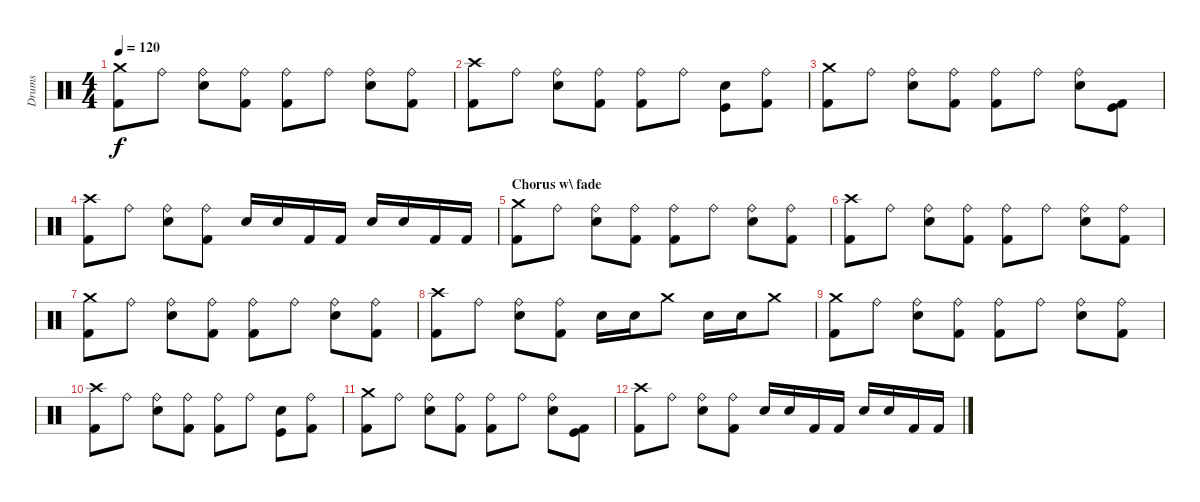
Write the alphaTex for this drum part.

\track ("Drums" "Drums") {instrument percussion}
\staff {score}
\articulation defaults
\ts (4 4)
\tempo 120
\clef neutral
\ks c
("Kick (hit) 2" "Crash medium (hit)").8{dy f} "Ride (bell)".8 ("Snare (hit) 2" "Ride (bell)").8 ("Kick (hit) 2" "Ride (bell)").8 ("Kick (hit) 2" "Ride (bell)").8 "Ride (bell)".8 ("Snare (hit) 2" "Ride (bell)").8 ("Kick (hit) 2" "Ride (bell)").8 |
("Kick (hit) 2" "Crash high (hit)").8 "Ride (bell)".8 ("Snare (hit) 2" "Ride (bell)").8 ("Kick (hit) 2" "Ride (bell)").8 ("Kick (hit) 2" "Ride (bell)").8 "Ride (bell)".8 ("Snare (hit) 2" "Kick (hit)").8 ("Kick (hit) 2" "Ride (bell)").8 |
("Kick (hit) 2" "Crash medium (hit)").8 "Ride (bell)".8 ("Snare (hit) 2" "Ride (bell)").8 ("Kick (hit) 2" "Ride (bell)").8 ("Kick (hit) 2" "Ride (bell)").8 "Ride (bell)".8 ("Snare (hit) 2" "Ride (bell)").8 ("Kick (hit) 2" "Kick (hit)").8 |
("Kick (hit) 2" "Crash high (hit)").8 "Ride (bell)".8 ("Snare (hit) 2" "Ride (bell)").8 ("Kick (hit) 2" "Ride (bell)").8 "Snare (hit) 2".16 "Snare (hit) 2".16 "Kick (hit) 2".16 "Kick (hit) 2".16 "Snare (hit) 2".16 "Snare (hit) 2".16 "Kick (hit) 2".16 "Kick (hit) 2".16 |
\section ("" "Chorus w\\ fade")
("Kick (hit) 2" "Crash medium (hit)").8{volume 11} "Ride (bell)".8 ("Snare (hit) 2" "Ride (bell)").8 ("Kick (hit) 2" "Ride (bell)").8 ("Kick (hit) 2" "Ride (bell)").8 "Ride (bell)".8 ("Snare (hit) 2" "Ride (bell)").8 ("Kick (hit) 2" "Ride (bell)").8 |
("Kick (hit) 2" "Crash high (hit)").8 "Ride (bell)".8 ("Snare (hit) 2" "Ride (bell)").8 ("Kick (hit) 2" "Ride (bell)").8 ("Kick (hit) 2" "Ride (bell)").8 "Ride (bell)".8 ("Snare (hit) 2" "Ride (bell)").8 ("Kick (hit) 2" "Ride (bell)").8 |
("Kick (hit) 2" "Crash medium (hit)").8{volume 9} "Ride (bell)".8 ("Snare (hit) 2" "Ride (bell)").8 ("Kick (hit) 2" "Ride (bell)").8 ("Kick (hit) 2" "Ride (bell)").8 "Ride (bell)".8 ("Snare (hit) 2" "Ride (bell)").8 ("Kick (hit) 2" "Ride (bell)").8 |
("Kick (hit) 2" "Crash high (hit)").8 "Ride (bell)".8 ("Snare (hit) 2" "Ride (bell)").8 ("Kick (hit) 2" "Ride (bell)").8 "Snare (hit) 2".16 "Snare (hit) 2".16 "Crash medium (hit)".8 "Snare (hit) 2".16 "Snare (hit) 2".16 "Crash medium (hit)".8 |
("Kick (hit) 2" "Crash medium (hit)").8{volume 7} "Ride (bell)".8 ("Snare (hit) 2" "Ride (bell)").8 ("Kick (hit) 2" "Ride (bell)").8 ("Kick (hit) 2" "Ride (bell)").8 "Ride (bell)".8 ("Snare (hit) 2" "Ride (bell)").8 ("Kick (hit) 2" "Ride (bell)").8 |
("Kick (hit) 2" "Crash high (hit)").8 "Ride (bell)".8 ("Snare (hit) 2" "Ride (bell)").8 ("Kick (hit) 2" "Ride (bell)").8 ("Kick (hit) 2" "Ride (bell)").8 "Ride (bell)".8 ("Snare (hit) 2" "Kick (hit)").8 ("Kick (hit) 2" "Ride (bell)").8 |
("Kick (hit) 2" "Crash medium (hit)").8{volume 0} "Ride (bell)".8 ("Snare (hit) 2" "Ride (bell)").8 ("Kick (hit) 2" "Ride (bell)").8 ("Kick (hit) 2" "Ride (bell)").8 "Ride (bell)".8 ("Snare (hit) 2" "Ride (bell)").8 ("Kick (hit) 2" "Kick (hit)").8 |
("Kick (hit) 2" "Crash high (hit)").8 "Ride (bell)".8 ("Snare (hit) 2" "Ride (bell)").8 ("Kick (hit) 2" "Ride (bell)").8 "Snare (hit) 2".16 "Snare (hit) 2".16 "Kick (hit) 2".16 "Kick (hit) 2".16 "Snare (hit) 2".16 "Snare (hit) 2".16 "Kick (hit) 2".16 "Kick (hit) 2".16
